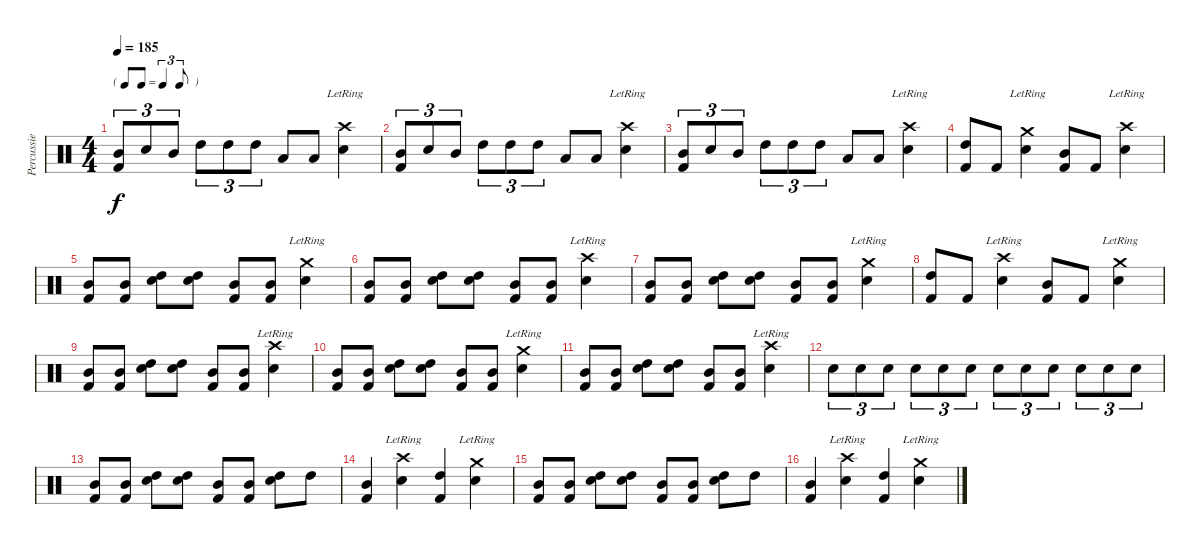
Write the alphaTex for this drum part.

\track ("Percussie" "Percussie") {instrument percussion}
\staff {score}
\articulation defaults
\ts (4 4)
\tf triplet8th
\tempo 185
\clef neutral
\ks c
("Mid Tom (hit)" "Kick (hit) 2").8{tu (3 2) dy f} "Snare (hit) 2".8{tu (3 2)} "Mid Tom (hit)".8{tu (3 2)} "High Tom (hit)".8{tu (3 2)} "High Tom (hit)".8{tu (3 2)} "High Tom (hit)".8{tu (3 2)} "Low Tom (hit)".8 "Low Tom (hit)".8 ("Crash high (hit)"{lr} "Snare (hit) 2").4 |
("Mid Tom (hit)" "Kick (hit) 2").8{tu (3 2)} "Snare (hit) 2".8{tu (3 2)} "Mid Tom (hit)".8{tu (3 2)} "High Tom (hit)".8{tu (3 2)} "High Tom (hit)".8{tu (3 2)} "High Tom (hit)".8{tu (3 2)} "Low Tom (hit)".8 "Low Tom (hit)".8 ("Crash high (hit)"{lr} "Snare (hit) 2").4 |
("Mid Tom (hit)" "Kick (hit) 2").8{tu (3 2)} "Snare (hit) 2".8{tu (3 2)} "Mid Tom (hit)".8{tu (3 2)} "High Tom (hit)".8{tu (3 2)} "High Tom (hit)".8{tu (3 2)} "High Tom (hit)".8{tu (3 2)} "Low Tom (hit)".8 "Low Tom (hit)".8 ("Crash high (hit)"{lr} "Snare (hit) 2").4 |
("High Tom (hit)" "Kick (hit) 2").8 "Kick (hit) 2".8 ("Crash medium (hit)"{lr} "Snare (hit) 2").4 ("Mid Tom (hit)" "Kick (hit) 2").8 "Kick (hit) 2".8 ("Crash high (hit)"{lr} "Snare (hit) 2").4 |
("Mid Tom (hit)" "Kick (hit) 2").8 ("Mid Tom (hit)" "Kick (hit) 2").8 ("High Tom (hit)" "Snare (hit) 2").8 ("High Tom (hit)" "Snare (hit) 2").8 ("Mid Tom (hit)" "Kick (hit) 2").8 ("Mid Tom (hit)" "Kick (hit) 2").8 ("Crash medium (hit)"{lr} "Snare (hit) 2").4 |
("Mid Tom (hit)" "Kick (hit) 2").8 ("Mid Tom (hit)" "Kick (hit) 2").8 ("High Tom (hit)" "Snare (hit) 2").8 ("High Tom (hit)" "Snare (hit) 2").8 ("Mid Tom (hit)" "Kick (hit) 2").8 ("Mid Tom (hit)" "Kick (hit) 2").8 ("Crash high (hit)"{lr} "Snare (hit) 2").4 |
("Mid Tom (hit)" "Kick (hit) 2").8 ("Mid Tom (hit)" "Kick (hit) 2").8 ("High Tom (hit)" "Snare (hit) 2").8 ("High Tom (hit)" "Snare (hit) 2").8 ("Mid Tom (hit)" "Kick (hit) 2").8 ("Mid Tom (hit)" "Kick (hit) 2").8 ("Crash medium (hit)"{lr} "Snare (hit) 2").4 |
("High Tom (hit)" "Kick (hit) 2").8 "Kick (hit) 2".8 ("Crash high (hit)"{lr} "Snare (hit) 2").4 ("Mid Tom (hit)" "Kick (hit) 2").8 "Kick (hit) 2".8 ("Crash medium (hit)"{lr} "Snare (hit) 2").4 |
("Mid Tom (hit)" "Kick (hit) 2").8 ("Mid Tom (hit)" "Kick (hit) 2").8 ("High Tom (hit)" "Snare (hit) 2").8 ("High Tom (hit)" "Snare (hit) 2").8 ("Mid Tom (hit)" "Kick (hit) 2").8 ("Mid Tom (hit)" "Kick (hit) 2").8 ("Crash high (hit)"{lr} "Snare (hit) 2").4 |
("Mid Tom (hit)" "Kick (hit) 2").8 ("Mid Tom (hit)" "Kick (hit) 2").8 ("High Tom (hit)" "Snare (hit) 2").8 ("High Tom (hit)" "Snare (hit) 2").8 ("Mid Tom (hit)" "Kick (hit) 2").8 ("Mid Tom (hit)" "Kick (hit) 2").8 ("Crash medium (hit)"{lr} "Snare (hit) 2").4 |
("Mid Tom (hit)" "Kick (hit) 2").8 ("Mid Tom (hit)" "Kick (hit) 2").8 ("High Tom (hit)" "Snare (hit) 2").8 ("High Tom (hit)" "Snare (hit) 2").8 ("Mid Tom (hit)" "Kick (hit) 2").8 ("Mid Tom (hit)" "Kick (hit) 2").8 ("Crash high (hit)"{lr} "Snare (hit) 2").4 |
"Snare (hit) 2".8{tu (3 2)} "Snare (hit) 2".8{tu (3 2)} "Snare (hit) 2".8{tu (3 2)} "Snare (hit) 2".8{tu (3 2)} "Snare (hit) 2".8{tu (3 2)} "Snare (hit) 2".8{tu (3 2)} "Snare (hit) 2".8{tu (3 2)} "Snare (hit) 2".8{tu (3 2)} "Snare (hit) 2".8{tu (3 2)} "Snare (hit) 2".8{tu (3 2)} "Snare (hit) 2".8{tu (3 2)} "Snare (hit) 2".8{tu (3 2)} |
("Mid Tom (hit)" "Kick (hit) 2").8 ("Mid Tom (hit)" "Kick (hit) 2").8 ("High Tom (hit)" "Snare (hit) 2").8 ("High Tom (hit)" "Snare (hit) 2").8 ("Mid Tom (hit)" "Kick (hit) 2").8 ("Mid Tom (hit)" "Kick (hit) 2").8 ("High Tom (hit)" "Snare (hit) 2").8 "High Tom (hit)".8 |
("Mid Tom (hit)" "Kick (hit) 2").4 ("Crash high (hit)"{lr} "Snare (hit) 2").4 ("High Tom (hit)" "Kick (hit) 2").4 ("Crash medium (hit)"{lr} "Snare (hit) 2").4 |
("Mid Tom (hit)" "Kick (hit) 2").8 ("Mid Tom (hit)" "Kick (hit) 2").8 ("High Tom (hit)" "Snare (hit) 2").8 ("High Tom (hit)" "Snare (hit) 2").8 ("Mid Tom (hit)" "Kick (hit) 2").8 ("Mid Tom (hit)" "Kick (hit) 2").8 ("High Tom (hit)" "Snare (hit) 2").8 "High Tom (hit)".8 |
("Mid Tom (hit)" "Kick (hit) 2").4 ("Crash high (hit)"{lr} "Snare (hit) 2").4 ("High Tom (hit)" "Kick (hit) 2").4 ("Crash medium (hit)"{lr} "Snare (hit) 2").4
